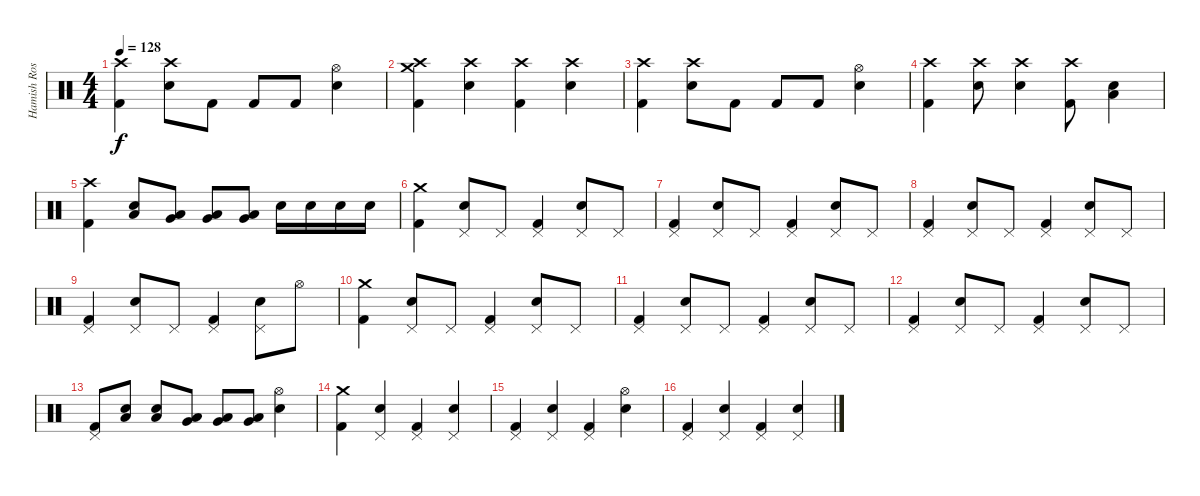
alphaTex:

\track ("Hamish Rosser" "Hamish Ros") {instrument percussion}
\staff {score}
\articulation defaults
\ts (4 4)
\tempo 128
\clef neutral
\ks c
("Crash high (hit)" "Kick (hit) 2").4{dy f} ("Crash high (hit)" "Snare (hit) 2").8 "Kick (hit) 2".8 "Kick (hit) 2".8 "Kick (hit) 2".8 ("Hi-Hat (open)" "Snare (hit) 2").4 |
("Crash high (hit)" "Crash medium (hit)" "Kick (hit) 2").4 ("Crash high (hit)" "Snare (hit) 2").4 ("Crash high (hit)" "Kick (hit) 2").4 ("Crash high (hit)" "Snare (hit) 2").4 |
("Crash high (hit)" "Kick (hit) 2").4 ("Crash high (hit)" "Snare (hit) 2").8 "Kick (hit) 2".8 "Kick (hit) 2".8 "Kick (hit) 2".8 ("Hi-Hat (open)" "Snare (hit) 2").4 |
("Crash high (hit)" "Kick (hit) 2").4 ("Crash high (hit)" "Snare (hit) 2").8 ("Crash high (hit)" "Snare (hit) 2").4 ("Crash high (hit)" "Kick (hit) 2").8 ("Snare (hit) 2" "Low Tom (hit)").4 |
("Crash high (hit)" "Kick (hit) 2").4 ("Snare (hit) 2" "Low Tom (hit)").8 ("Very Low Tom (hit)" "Low Tom (hit)").8 ("Very Low Tom (hit)" "Low Tom (hit)").8 ("Very Low Tom (hit)" "Low Tom (hit)").8 "Snare (hit) 2".16 "Snare (hit) 2".16 "Snare (hit) 2".16 "Snare (hit) 2".16 |
("Crash medium (hit)" "Kick (hit) 2").4 ("Pedal Hi-Hat (hit)" "Snare (hit) 2").8 "Pedal Hi-Hat (hit)".8 ("Pedal Hi-Hat (hit)" "Kick (hit) 2").4 ("Pedal Hi-Hat (hit)" "Snare (hit) 2").8 "Pedal Hi-Hat (hit)".8 |
("Pedal Hi-Hat (hit)" "Kick (hit) 2").4 ("Pedal Hi-Hat (hit)" "Snare (hit) 2").8 "Pedal Hi-Hat (hit)".8 ("Pedal Hi-Hat (hit)" "Kick (hit) 2").4 ("Pedal Hi-Hat (hit)" "Snare (hit) 2").8 "Pedal Hi-Hat (hit)".8 |
("Pedal Hi-Hat (hit)" "Kick (hit) 2").4 ("Pedal Hi-Hat (hit)" "Snare (hit) 2").8 "Pedal Hi-Hat (hit)".8 ("Pedal Hi-Hat (hit)" "Kick (hit) 2").4 ("Pedal Hi-Hat (hit)" "Snare (hit) 2").8 "Pedal Hi-Hat (hit)".8 |
("Pedal Hi-Hat (hit)" "Kick (hit) 2").4 ("Pedal Hi-Hat (hit)" "Snare (hit) 2").8 "Pedal Hi-Hat (hit)".8 ("Pedal Hi-Hat (hit)" "Kick (hit) 2").4 ("Pedal Hi-Hat (hit)" "Snare (hit) 2").8 "Hi-Hat (open)".8 |
("Crash medium (hit)" "Kick (hit) 2").4 ("Pedal Hi-Hat (hit)" "Snare (hit) 2").8 "Pedal Hi-Hat (hit)".8 ("Pedal Hi-Hat (hit)" "Kick (hit) 2").4 ("Pedal Hi-Hat (hit)" "Snare (hit) 2").8 "Pedal Hi-Hat (hit)".8 |
("Pedal Hi-Hat (hit)" "Kick (hit) 2").4 ("Pedal Hi-Hat (hit)" "Snare (hit) 2").8 "Pedal Hi-Hat (hit)".8 ("Pedal Hi-Hat (hit)" "Kick (hit) 2").4 ("Pedal Hi-Hat (hit)" "Snare (hit) 2").8 "Pedal Hi-Hat (hit)".8 |
("Pedal Hi-Hat (hit)" "Kick (hit) 2").4 ("Pedal Hi-Hat (hit)" "Snare (hit) 2").8 "Pedal Hi-Hat (hit)".8 ("Pedal Hi-Hat (hit)" "Kick (hit) 2").4 ("Pedal Hi-Hat (hit)" "Snare (hit) 2").8 "Pedal Hi-Hat (hit)".8 |
("Pedal Hi-Hat (hit)" "Kick (hit) 2").8 ("Snare (hit) 2" "Low Tom (hit)").8 ("Snare (hit) 2" "Low Tom (hit)").8 ("Very Low Tom (hit)" "Low Tom (hit)").8 ("Very Low Tom (hit)" "Low Tom (hit)").8 ("Very Low Tom (hit)" "Low Tom (hit)").8 ("Hi-Hat (open)" "Snare (hit) 2").4 |
("Crash medium (hit)" "Kick (hit) 2").4 ("Pedal Hi-Hat (hit)" "Snare (hit) 2").4 ("Pedal Hi-Hat (hit)" "Kick (hit) 2").4 ("Pedal Hi-Hat (hit)" "Snare (hit) 2").4 |
("Pedal Hi-Hat (hit)" "Kick (hit) 2").4 ("Pedal Hi-Hat (hit)" "Snare (hit) 2").4 ("Pedal Hi-Hat (hit)" "Kick (hit) 2").4 ("Hi-Hat (open)" "Snare (hit) 2").4 |
("Pedal Hi-Hat (hit)" "Kick (hit) 2").4 ("Pedal Hi-Hat (hit)" "Snare (hit) 2").4 ("Pedal Hi-Hat (hit)" "Kick (hit) 2").4 ("Pedal Hi-Hat (hit)" "Snare (hit) 2").4
